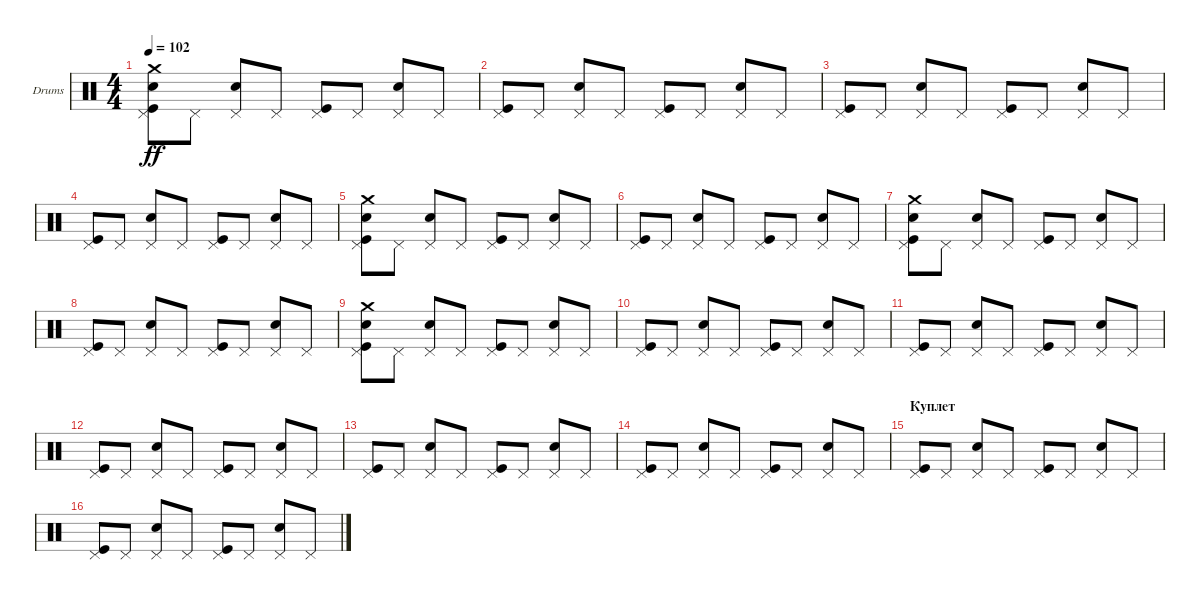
\defaultSystemsLayout 4
\bracketExtendMode groupsimilarinstruments
\firstSystemTrackNameOrientation horizontal
\otherSystemsTrackNameOrientation horizontal
\track ("Е. Кулаков" "Drums") {instrument percussion}
\staff {score}
\articulation defaults
\ts (4 4)
\tempo 102
\clef neutral
\ks c
("Pedal Hi-Hat (hit)" "Kick (hit)" "Snare (hit) 2" "Crash medium (hit)").8{dy ff} "Pedal Hi-Hat (hit)".8 ("Pedal Hi-Hat (hit)" "Snare (hit) 2").8 "Pedal Hi-Hat (hit)".8 ("Pedal Hi-Hat (hit)" "Kick (hit)").8 "Pedal Hi-Hat (hit)".8 ("Pedal Hi-Hat (hit)" "Snare (hit) 2").8 "Pedal Hi-Hat (hit)".8 |
("Pedal Hi-Hat (hit)" "Kick (hit)").8 "Pedal Hi-Hat (hit)".8 ("Pedal Hi-Hat (hit)" "Snare (hit) 2").8 "Pedal Hi-Hat (hit)".8 ("Pedal Hi-Hat (hit)" "Kick (hit)").8 "Pedal Hi-Hat (hit)".8 ("Pedal Hi-Hat (hit)" "Snare (hit) 2").8 "Pedal Hi-Hat (hit)".8 |
("Pedal Hi-Hat (hit)" "Kick (hit)").8 "Pedal Hi-Hat (hit)".8 ("Pedal Hi-Hat (hit)" "Snare (hit) 2").8 "Pedal Hi-Hat (hit)".8 ("Pedal Hi-Hat (hit)" "Kick (hit)").8 "Pedal Hi-Hat (hit)".8 ("Pedal Hi-Hat (hit)" "Snare (hit) 2").8 "Pedal Hi-Hat (hit)".8 |
("Pedal Hi-Hat (hit)" "Kick (hit)").8 "Pedal Hi-Hat (hit)".8 ("Pedal Hi-Hat (hit)" "Snare (hit) 2").8 "Pedal Hi-Hat (hit)".8 ("Pedal Hi-Hat (hit)" "Kick (hit)").8 "Pedal Hi-Hat (hit)".8 ("Pedal Hi-Hat (hit)" "Snare (hit) 2").8 "Pedal Hi-Hat (hit)".8 |
("Pedal Hi-Hat (hit)" "Kick (hit)" "Crash medium (hit)" "Snare (hit) 2").8 "Pedal Hi-Hat (hit)".8 ("Pedal Hi-Hat (hit)" "Snare (hit) 2").8 "Pedal Hi-Hat (hit)".8 ("Pedal Hi-Hat (hit)" "Kick (hit)").8 "Pedal Hi-Hat (hit)".8 ("Pedal Hi-Hat (hit)" "Snare (hit) 2").8 "Pedal Hi-Hat (hit)".8 |
("Pedal Hi-Hat (hit)" "Kick (hit)").8 "Pedal Hi-Hat (hit)".8 ("Pedal Hi-Hat (hit)" "Snare (hit) 2").8 "Pedal Hi-Hat (hit)".8 ("Pedal Hi-Hat (hit)" "Kick (hit)").8 "Pedal Hi-Hat (hit)".8 ("Pedal Hi-Hat (hit)" "Snare (hit) 2").8 "Pedal Hi-Hat (hit)".8 |
("Pedal Hi-Hat (hit)" "Kick (hit)" "Crash medium (hit)" "Snare (hit) 2").8 "Pedal Hi-Hat (hit)".8 ("Pedal Hi-Hat (hit)" "Snare (hit) 2").8 "Pedal Hi-Hat (hit)".8 ("Pedal Hi-Hat (hit)" "Kick (hit)").8 "Pedal Hi-Hat (hit)".8 ("Pedal Hi-Hat (hit)" "Snare (hit) 2").8 "Pedal Hi-Hat (hit)".8 |
("Pedal Hi-Hat (hit)" "Kick (hit)").8 "Pedal Hi-Hat (hit)".8 ("Pedal Hi-Hat (hit)" "Snare (hit) 2").8 "Pedal Hi-Hat (hit)".8 ("Pedal Hi-Hat (hit)" "Kick (hit)").8 "Pedal Hi-Hat (hit)".8 ("Pedal Hi-Hat (hit)" "Snare (hit) 2").8 "Pedal Hi-Hat (hit)".8 |
("Pedal Hi-Hat (hit)" "Kick (hit)" "Snare (hit) 2" "Crash medium (hit)").8 "Pedal Hi-Hat (hit)".8 ("Pedal Hi-Hat (hit)" "Snare (hit) 2").8 "Pedal Hi-Hat (hit)".8 ("Pedal Hi-Hat (hit)" "Kick (hit)").8 "Pedal Hi-Hat (hit)".8 ("Pedal Hi-Hat (hit)" "Snare (hit) 2").8 "Pedal Hi-Hat (hit)".8 |
("Pedal Hi-Hat (hit)" "Kick (hit)").8 "Pedal Hi-Hat (hit)".8 ("Pedal Hi-Hat (hit)" "Snare (hit) 2").8 "Pedal Hi-Hat (hit)".8 ("Pedal Hi-Hat (hit)" "Kick (hit)").8 "Pedal Hi-Hat (hit)".8 ("Pedal Hi-Hat (hit)" "Snare (hit) 2").8 "Pedal Hi-Hat (hit)".8 |
("Pedal Hi-Hat (hit)" "Kick (hit)").8 "Pedal Hi-Hat (hit)".8 ("Pedal Hi-Hat (hit)" "Snare (hit) 2").8 "Pedal Hi-Hat (hit)".8 ("Pedal Hi-Hat (hit)" "Kick (hit)").8 "Pedal Hi-Hat (hit)".8 ("Pedal Hi-Hat (hit)" "Snare (hit) 2").8 "Pedal Hi-Hat (hit)".8 |
("Pedal Hi-Hat (hit)" "Kick (hit)").8 "Pedal Hi-Hat (hit)".8 ("Pedal Hi-Hat (hit)" "Snare (hit) 2").8 "Pedal Hi-Hat (hit)".8 ("Pedal Hi-Hat (hit)" "Kick (hit)").8 "Pedal Hi-Hat (hit)".8 ("Pedal Hi-Hat (hit)" "Snare (hit) 2").8 "Pedal Hi-Hat (hit)".8 |
("Pedal Hi-Hat (hit)" "Kick (hit)").8 "Pedal Hi-Hat (hit)".8 ("Pedal Hi-Hat (hit)" "Snare (hit) 2").8 "Pedal Hi-Hat (hit)".8 ("Pedal Hi-Hat (hit)" "Kick (hit)").8 "Pedal Hi-Hat (hit)".8 ("Pedal Hi-Hat (hit)" "Snare (hit) 2").8 "Pedal Hi-Hat (hit)".8 |
("Pedal Hi-Hat (hit)" "Kick (hit)").8 "Pedal Hi-Hat (hit)".8 ("Pedal Hi-Hat (hit)" "Snare (hit) 2").8 "Pedal Hi-Hat (hit)".8 ("Pedal Hi-Hat (hit)" "Kick (hit)").8 "Pedal Hi-Hat (hit)".8 ("Pedal Hi-Hat (hit)" "Snare (hit) 2").8 "Pedal Hi-Hat (hit)".8 |
\section ("" "Куплет")
("Pedal Hi-Hat (hit)" "Kick (hit)").8 "Pedal Hi-Hat (hit)".8 ("Pedal Hi-Hat (hit)" "Snare (hit) 2").8 "Pedal Hi-Hat (hit)".8 ("Pedal Hi-Hat (hit)" "Kick (hit)").8 "Pedal Hi-Hat (hit)".8 ("Pedal Hi-Hat (hit)" "Snare (hit) 2").8 "Pedal Hi-Hat (hit)".8 |
("Pedal Hi-Hat (hit)" "Kick (hit)").8 "Pedal Hi-Hat (hit)".8 ("Pedal Hi-Hat (hit)" "Snare (hit) 2").8 "Pedal Hi-Hat (hit)".8 ("Pedal Hi-Hat (hit)" "Kick (hit)").8 "Pedal Hi-Hat (hit)".8 ("Pedal Hi-Hat (hit)" "Snare (hit) 2").8 "Pedal Hi-Hat (hit)".8
